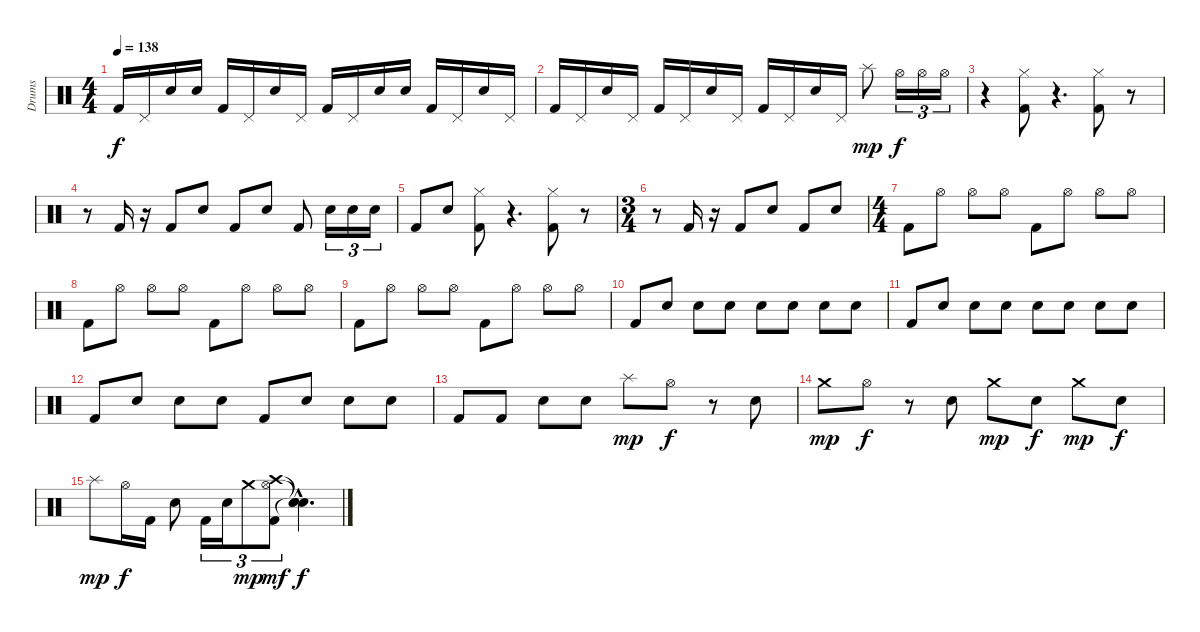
\track ("Drums" "Drums") {instrument percussion}
\staff {score}
\articulation defaults
\ts (4 4)
\tempo 138
\clef neutral
\ks c "Kick (hit) 2".16{dy f} "Pedal Hi-Hat (hit)".16 "Electric Snare (hit)".16 "Electric Snare (hit)".16 "Kick (hit) 2".16 "Pedal Hi-Hat (hit)".16 "Electric Snare (hit)".16 "Pedal Hi-Hat (hit)".16 "Kick (hit) 2".16 "Pedal Hi-Hat (hit)".16 "Electric Snare (hit)".16 "Electric Snare (hit)".16 "Kick (hit) 2".16 "Pedal Hi-Hat (hit)".16 "Electric Snare (hit)".16 "Pedal Hi-Hat (hit)".16
|
"Kick (hit) 2".16 "Pedal Hi-Hat (hit)".16 "Electric Snare (hit)".16 "Pedal Hi-Hat (hit)".16 "Kick (hit) 2".16 "Pedal Hi-Hat (hit)".16 "Electric Snare (hit)".16 "Pedal Hi-Hat (hit)".16 "Kick (hit) 2".16 "Pedal Hi-Hat (hit)".16 "Electric Snare (hit)".16 "Pedal Hi-Hat (hit)".16 "Splash (hit)".8{dy mp} "Hi-Hat (open)".16{tu (3 2) dy f} "Hi-Hat (open)".16{tu (3 2)} "Hi-Hat (open)".16{tu (3 2)} |
r.4 ("Hi-Hat (closed)" "Kick (hit) 2").8 r.4{d} ("Hi-Hat (closed)" "Kick (hit) 2").8 r.8 |
r.8 "Kick (hit) 2".16 r.16 "Kick (hit) 2".8 "Electric Snare (hit)".8 "Kick (hit) 2".8 "Electric Snare (hit)".8 "Kick (hit) 2".8 "Electric Snare (hit)".16{tu (3 2)} "Electric Snare (hit)".16{tu (3 2)} "Electric Snare (hit)".16{tu (3 2)} |
"Kick (hit) 2".8 "Electric Snare (hit)".8 ("Hi-Hat (closed)" "Kick (hit) 2").8 r.4{d} ("Hi-Hat (closed)" "Kick (hit) 2").8 r.8 |
\ts (3 4)
r.8 "Kick (hit) 2".16 r.16 "Kick (hit) 2".8 "Electric Snare (hit)".8 "Kick (hit) 2".8 "Electric Snare (hit)".8 |
\ts (4 4)
"Kick (hit) 2".8 "Hi-Hat (open)".8 "Hi-Hat (open)".8 "Hi-Hat (open)".8 "Kick (hit) 2".8 "Hi-Hat (open)".8 "Hi-Hat (open)".8 "Hi-Hat (open)".8 |
"Kick (hit) 2".8 "Hi-Hat (open)".8 "Hi-Hat (open)".8 "Hi-Hat (open)".8 "Kick (hit) 2".8 "Hi-Hat (open)".8 "Hi-Hat (open)".8 "Hi-Hat (open)".8 |
"Kick (hit) 2".8 "Hi-Hat (open)".8 "Hi-Hat (open)".8 "Hi-Hat (open)".8 "Kick (hit) 2".8 "Hi-Hat (open)".8 "Hi-Hat (open)".8 "Hi-Hat (open)".8 |
"Kick (hit) 2".8 "Electric Snare (hit)".8 "Electric Snare (hit)".8 "Electric Snare (hit)".8 "Electric Snare (hit)".8 "Electric Snare (hit)".8 "Electric Snare (hit)".8 "Electric Snare (hit)".8 |
"Kick (hit) 2".8 "Electric Snare (hit)".8 "Electric Snare (hit)".8 "Electric Snare (hit)".8 "Electric Snare (hit)".8 "Electric Snare (hit)".8 "Electric Snare (hit)".8 "Electric Snare (hit)".8 |
"Kick (hit) 2".8 "Electric Snare (hit)".8 "Electric Snare (hit)".8 "Electric Snare (hit)".8 "Kick (hit) 2".8 "Electric Snare (hit)".8 "Electric Snare (hit)".8 "Electric Snare (hit)".8 |
"Kick (hit) 2".8 "Kick (hit) 2".8 "Electric Snare (hit)".8 "Electric Snare (hit)".8 "Splash (hit)".8{dy mp} "Hi-Hat (open)".8{dy f} r.8 "Electric Snare (hit)".8 |
"Crash medium (hit)".8{dy mp} "Hi-Hat (open)".8{dy f} r.8 "Electric Snare (hit)".8 "Crash medium (hit)".8{dy mp} "Electric Snare (hit)".8{dy f} "Crash medium (hit)".8{dy mp} "Electric Snare (hit)".8{dy f} |
"Splash (hit)".8{dy mp} "Hi-Hat (open)".16{dy f} "Kick (hit) 2".16 "Electric Snare (hit)".8 "Kick (hit) 2".16{tu (3 2)} "Electric Snare (hit)".16{tu (3 2)} "Crash medium (hit)".8{tu (3 2) dy mp} ("Hi-Hat (open)" "Kick (hit) 2" "Crash high (hit)").8{tu (3 2) dy mf} ("Snare (hit)"{hac t} "Snare (hit)"{hac t} "Snare (hit)"{hac t}).4{d dy f}
